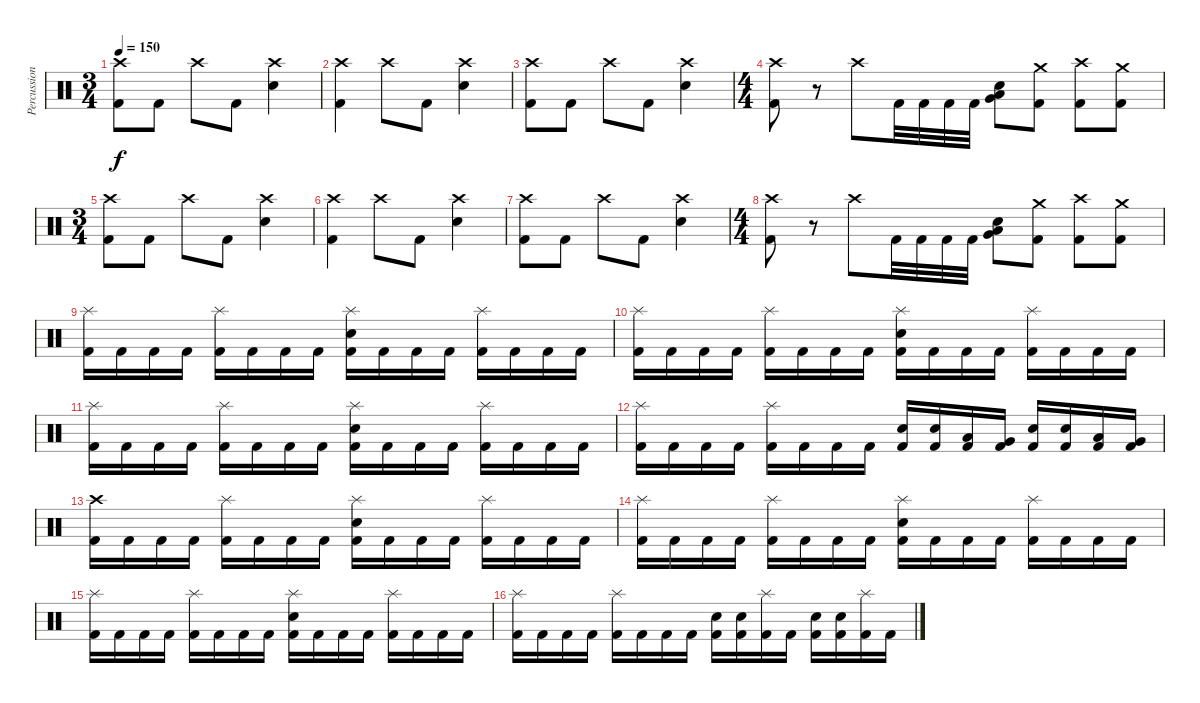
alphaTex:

\track ("Percussion" "Percussion") {instrument percussion}
\staff {score}
\articulation defaults
\ts (3 4)
\tempo 150
\clef neutral
\ks c
("Crash high (hit)" "Kick (hit) 2").8{dy f} "Kick (hit) 2".8 "Crash high (hit)".8 "Kick (hit) 2".8 ("Crash high (hit)" "Electric Snare (hit)").4 |
("Crash high (hit)" "Kick (hit) 2").4 "Crash high (hit)".8 "Kick (hit) 2".8 ("Crash high (hit)" "Electric Snare (hit)").4 |
("Crash high (hit)" "Kick (hit) 2").8 "Kick (hit) 2".8 "Crash high (hit)".8 "Kick (hit) 2".8 ("Crash high (hit)" "Electric Snare (hit)").4 |
\ts (4 4)
("Crash high (hit)" "Kick (hit) 2").8 r.8 "Crash high (hit)".8 "Kick (hit) 2".32 "Kick (hit) 2".32 "Kick (hit) 2".32 "Kick (hit) 2".32 ("Very Low Tom (hit)" "Low Floor Tom (hit)" "Electric Snare (hit)").8 ("Crash medium (hit)" "Kick (hit) 2").8 ("Crash high (hit)" "Kick (hit) 2").8 ("Crash medium (hit)" "Kick (hit) 2").8 |
\ts (3 4)
("Crash high (hit)" "Kick (hit) 2").8 "Kick (hit) 2".8 "Crash high (hit)".8 "Kick (hit) 2".8 ("Crash high (hit)" "Electric Snare (hit)").4 |
("Crash high (hit)" "Kick (hit) 2").4 "Crash high (hit)".8 "Kick (hit) 2".8 ("Crash high (hit)" "Electric Snare (hit)").4 |
("Crash high (hit)" "Kick (hit) 2").8 "Kick (hit) 2".8 "Crash high (hit)".8 "Kick (hit) 2".8 ("Crash high (hit)" "Electric Snare (hit)").4 |
\ts (4 4)
("Crash high (hit)" "Kick (hit) 2").8 r.8 "Crash high (hit)".8 "Kick (hit) 2".32 "Kick (hit) 2".32 "Kick (hit) 2".32 "Kick (hit) 2".32 ("Very Low Tom (hit)" "Low Floor Tom (hit)" "Electric Snare (hit)").8 ("Crash medium (hit)" "Kick (hit) 2").8 ("Crash high (hit)" "Kick (hit) 2").8 ("Crash medium (hit)" "Kick (hit) 2").8 |
("Splash (hit)" "Kick (hit) 2").16 "Kick (hit) 2".16 "Kick (hit) 2".16 "Kick (hit) 2".16 ("Splash (hit)" "Kick (hit) 2").16 "Kick (hit) 2".16 "Kick (hit) 2".16 "Kick (hit) 2".16 ("Splash (hit)" "Electric Snare (hit)" "Kick (hit) 2").16 "Kick (hit) 2".16 "Kick (hit) 2".16 "Kick (hit) 2".16 ("Splash (hit)" "Kick (hit) 2").16 "Kick (hit) 2".16 "Kick (hit) 2".16 "Kick (hit) 2".16 |
("Splash (hit)" "Kick (hit) 2").16 "Kick (hit) 2".16 "Kick (hit) 2".16 "Kick (hit) 2".16 ("Splash (hit)" "Kick (hit) 2").16 "Kick (hit) 2".16 "Kick (hit) 2".16 "Kick (hit) 2".16 ("Splash (hit)" "Electric Snare (hit)" "Kick (hit) 2").16 "Kick (hit) 2".16 "Kick (hit) 2".16 "Kick (hit) 2".16 ("Splash (hit)" "Kick (hit) 2").16 "Kick (hit) 2".16 "Kick (hit) 2".16 "Kick (hit) 2".16 |
("Splash (hit)" "Kick (hit) 2").16 "Kick (hit) 2".16 "Kick (hit) 2".16 "Kick (hit) 2".16 ("Splash (hit)" "Kick (hit) 2").16 "Kick (hit) 2".16 "Kick (hit) 2".16 "Kick (hit) 2".16 ("Splash (hit)" "Electric Snare (hit)" "Kick (hit) 2").16 "Kick (hit) 2".16 "Kick (hit) 2".16 "Kick (hit) 2".16 ("Splash (hit)" "Kick (hit) 2").16 "Kick (hit) 2".16 "Kick (hit) 2".16 "Kick (hit) 2".16 |
("Splash (hit)" "Kick (hit) 2").16 "Kick (hit) 2".16 "Kick (hit) 2".16 "Kick (hit) 2".16 ("Splash (hit)" "Kick (hit) 2").16 "Kick (hit) 2".16 "Kick (hit) 2".16 "Kick (hit) 2".16 ("Electric Snare (hit)" "Kick (hit) 2").16 ("Electric Snare (hit)" "Kick (hit) 2").16 ("Low Tom (hit)" "Kick (hit) 2").16 ("Very Low Tom (hit)" "Kick (hit) 2").16 ("Electric Snare (hit)" "Kick (hit) 2").16 ("Electric Snare (hit)" "Kick (hit) 2").16 ("Low Tom (hit)" "Kick (hit) 2").16 ("Very Low Tom (hit)" "Kick (hit) 2").16 |
("Crash high (hit)" "Kick (hit) 2").16 "Kick (hit) 2".16 "Kick (hit) 2".16 "Kick (hit) 2".16 ("Splash (hit)" "Kick (hit) 2").16 "Kick (hit) 2".16 "Kick (hit) 2".16 "Kick (hit) 2".16 ("Splash (hit)" "Electric Snare (hit)" "Kick (hit) 2").16 "Kick (hit) 2".16 "Kick (hit) 2".16 "Kick (hit) 2".16 ("Splash (hit)" "Kick (hit) 2").16 "Kick (hit) 2".16 "Kick (hit) 2".16 "Kick (hit) 2".16 |
("Splash (hit)" "Kick (hit) 2").16 "Kick (hit) 2".16 "Kick (hit) 2".16 "Kick (hit) 2".16 ("Splash (hit)" "Kick (hit) 2").16 "Kick (hit) 2".16 "Kick (hit) 2".16 "Kick (hit) 2".16 ("Splash (hit)" "Electric Snare (hit)" "Kick (hit) 2").16 "Kick (hit) 2".16 "Kick (hit) 2".16 "Kick (hit) 2".16 ("Splash (hit)" "Kick (hit) 2").16 "Kick (hit) 2".16 "Kick (hit) 2".16 "Kick (hit) 2".16 |
("Splash (hit)" "Kick (hit) 2").16 "Kick (hit) 2".16 "Kick (hit) 2".16 "Kick (hit) 2".16 ("Splash (hit)" "Kick (hit) 2").16 "Kick (hit) 2".16 "Kick (hit) 2".16 "Kick (hit) 2".16 ("Splash (hit)" "Electric Snare (hit)" "Kick (hit) 2").16 "Kick (hit) 2".16 "Kick (hit) 2".16 "Kick (hit) 2".16 ("Splash (hit)" "Kick (hit) 2").16 "Kick (hit) 2".16 "Kick (hit) 2".16 "Kick (hit) 2".16 |
("Splash (hit)" "Kick (hit) 2").16 "Kick (hit) 2".16 "Kick (hit) 2".16 "Kick (hit) 2".16 ("Splash (hit)" "Kick (hit) 2").16 "Kick (hit) 2".16 "Kick (hit) 2".16 "Kick (hit) 2".16 ("Electric Snare (hit)" "Kick (hit) 2").16 ("Electric Snare (hit)" "Kick (hit) 2").16 ("Splash (hit)" "Kick (hit) 2").16 "Kick (hit) 2".16 ("Electric Snare (hit)" "Kick (hit) 2").16 ("Electric Snare (hit)" "Kick (hit) 2").16 ("Splash (hit)" "Kick (hit) 2").16 "Kick (hit) 2".16
